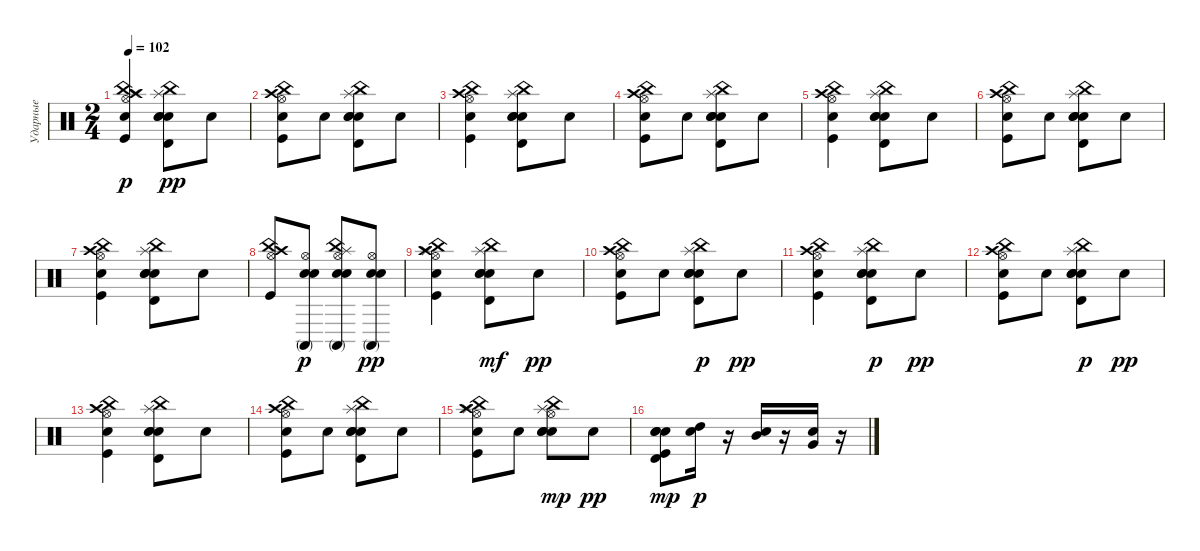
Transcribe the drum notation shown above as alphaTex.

\track ("Ударные" "Ударные") {instrument percussion}
\staff {score}
\articulation defaults
\ts (2 4)
\tempo 102
\clef neutral
\ks c
("Snare (hit) 2" "Hi-Hat (open)" "China (hit)" "Splash (hit)" "Crash high (hit)" "Kick (hit)").4{dy p} ("Timbale high (hit)" "Electric Snare (hit)" "Splash (hit)" "China (hit)" "Snare (hit) 2" "Hand Clap (hit)").8{dy pp} "Hand Clap (hit)".8 |
("Kick (hit)" "Hi-Hat (open)" "China (hit)" "Crash high (hit)" "Hand Clap (hit)").8 "Hand Clap (hit)".8 ("Electric Snare (hit)" "Splash (hit)" "China (hit)" "Snare (hit) 2" "Timbale high (hit)" "Hand Clap (hit)").8 "Hand Clap (hit)".8 |
("Kick (hit)" "Hi-Hat (open)" "China (hit)" "Crash high (hit)" "Hand Clap (hit)").4 ("Splash (hit)" "China (hit)" "Snare (hit) 2" "Timbale high (hit)" "Electric Snare (hit)" "Hand Clap (hit)").8 "Hand Clap (hit)".8 |
("Kick (hit)" "Hi-Hat (open)" "China (hit)" "Crash high (hit)" "Hand Clap (hit)").8 "Hand Clap (hit)".8 ("Splash (hit)" "China (hit)" "Snare (hit) 2" "Electric Snare (hit)" "Timbale high (hit)" "Hand Clap (hit)").8 "Hand Clap (hit)".8 |
("Kick (hit)" "Hi-Hat (open)" "China (hit)" "Crash high (hit)" "Hand Clap (hit)").4 ("Splash (hit)" "China (hit)" "Snare (hit) 2" "Timbale high (hit)" "Electric Snare (hit)" "Hand Clap (hit)").8 "Hand Clap (hit)".8 |
("Kick (hit)" "Hi-Hat (open)" "China (hit)" "Crash high (hit)" "Hand Clap (hit)").8 "Hand Clap (hit)".8 ("Splash (hit)" "China (hit)" "Snare (hit) 2" "Electric Snare (hit)" "Timbale high (hit)" "Hand Clap (hit)").8 "Hand Clap (hit)".8 |
("Kick (hit)" "Hi-Hat (open)" "China (hit)" "Crash high (hit)" "Hand Clap (hit)").4 ("Splash (hit)" "China (hit)" "Snare (hit) 2" "Timbale high (hit)" "Electric Snare (hit)" "Hand Clap (hit)").8 "Hand Clap (hit)".8 |
("Kick (hit)" "Hi-Hat (open)" "China (hit)" "Crash high (hit)").8 ("Snare (hit) 2" "Electric Snare (hit)" "Hi-Hat (open)" "Conga high (mute)").8{dy p} ("China (hit)" "Splash (hit)" "Electric Snare (hit)" "Hi-Hat (open)" "Snare (hit) 2" "Conga high (mute)").8 ("Snare (hit) 2" "Electric Snare (hit)" "Conga high (mute)" "Hi-Hat (open)").8{dy pp} |
("China (hit)" "Crash high (hit)" "Splash (hit)" "Hi-Hat (open)" "Kick (hit)" "Hand Clap (hit)").4 ("Timbale high (hit)" "Snare (hit) 2" "Splash (hit)" "China (hit)" "Hand Clap (hit)" "Electric Snare (hit)").8{dy mf} "Hand Clap (hit)".8{dy pp} |
("Hi-Hat (open)" "China (hit)" "Kick (hit)" "Crash high (hit)" "Hand Clap (hit)").8 "Hand Clap (hit)".8 ("China (hit)" "Splash (hit)" "Hand Clap (hit)" "Snare (hit) 2" "Electric Snare (hit)" "Timbale high (hit)").8{dy p} "Hand Clap (hit)".8{dy pp} |
("Kick (hit)" "Hand Clap (hit)" "China (hit)" "Hi-Hat (open)" "Crash high (hit)").4 ("Splash (hit)" "Electric Snare (hit)" "Hand Clap (hit)" "China (hit)" "Snare (hit) 2" "Timbale high (hit)").8{dy p} "Hand Clap (hit)".8{dy pp} |
("Kick (hit)" "Hand Clap (hit)" "China (hit)" "Hi-Hat (open)" "Crash high (hit)").8 "Hand Clap (hit)".8 ("Electric Snare (hit)" "Timbale high (hit)" "Hand Clap (hit)" "Splash (hit)" "China (hit)" "Snare (hit) 2").8{dy p} "Hand Clap (hit)".8{dy pp} |
("Crash high (hit)" "China (hit)" "Kick (hit)" "Hi-Hat (open)" "Hand Clap (hit)").4 ("Snare (hit) 2" "Electric Snare (hit)" "Timbale high (hit)" "Splash (hit)" "China (hit)" "Hand Clap (hit)").8 "Hand Clap (hit)".8 |
("Hi-Hat (open)" "China (hit)" "Kick (hit)" "Hand Clap (hit)" "Crash high (hit)").8 "Hand Clap (hit)".8 ("China (hit)" "Snare (hit) 2" "Splash (hit)" "Electric Snare (hit)" "Timbale high (hit)" "Hand Clap (hit)").8 "Hand Clap (hit)".8 |
("Hi-Hat (open)" "Kick (hit)" "Crash high (hit)" "Splash (hit)" "China (hit)" "Hand Clap (hit)").8 "Hand Clap (hit)".8 ("Snare (hit) 2" "Electric Snare (hit)" "Hand Clap (hit)" "Hi-Hat (open)" "Splash (hit)" "China (hit)").8{dy mp} "Hand Clap (hit)".8{dy pp} |
("Electric Snare (hit)" "Snare (hit) 2" "Kick (hit)" "Timbale high (hit)" "Snare (hit) 2").8{dy mp} ("High Tom (hit)" "Snare (hit) 2").16{dy p} r.16 ("Mid Tom (hit)" "Snare (hit) 2").16 r.16 ("Very Low Tom (hit)" "Snare (hit) 2").16 r.16
